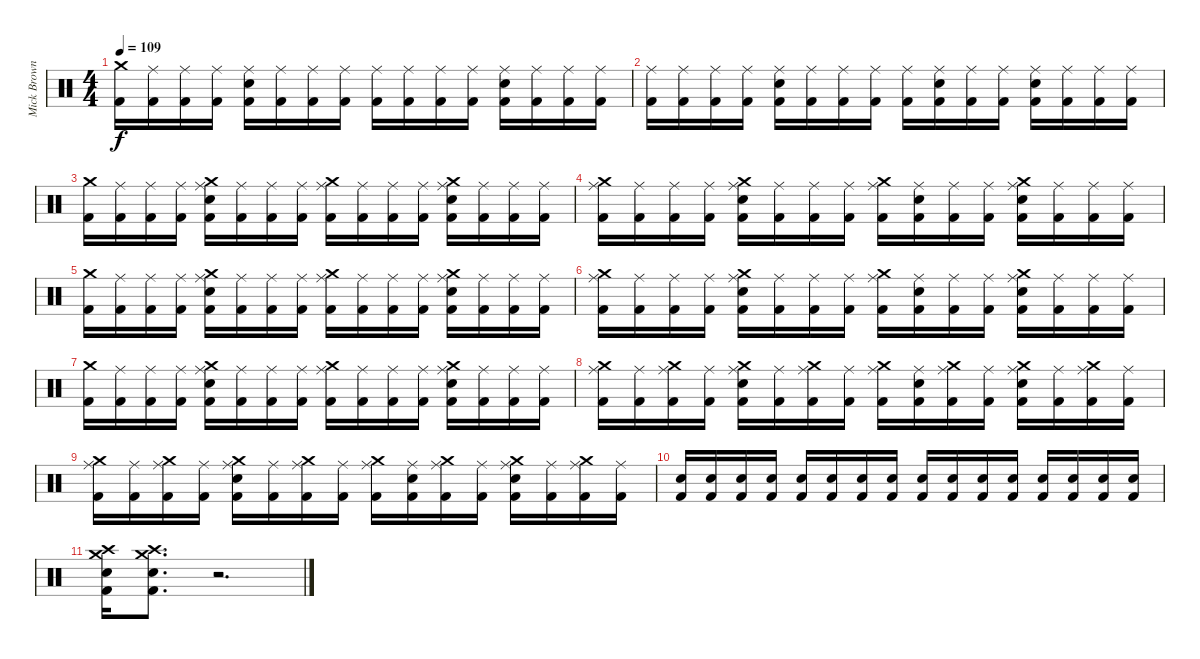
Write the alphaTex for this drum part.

\track ("Mick Brown" "Mick Brown") {instrument percussion}
\staff {score}
\articulation defaults
\ts (4 4)
\tempo 109
\clef neutral
\ks c
("Crash medium (hit)" "Kick (hit) 2").16{dy f} ("Ride (middle)" "Kick (hit) 2").16 ("Ride (middle)" "Kick (hit) 2").16 ("Ride (middle)" "Kick (hit) 2").16 ("Ride (middle)" "Snare (hit) 2" "Kick (hit) 2").16 ("Ride (middle)" "Kick (hit) 2").16 ("Ride (middle)" "Kick (hit) 2").16 ("Ride (middle)" "Kick (hit) 2").16 ("Ride (middle)" "Kick (hit) 2").16 ("Ride (middle)" "Kick (hit) 2").16 ("Ride (middle)" "Kick (hit) 2").16 ("Ride (middle)" "Kick (hit) 2").16 ("Ride (middle)" "Snare (hit) 2" "Kick (hit) 2").16 ("Ride (middle)" "Kick (hit) 2").16 ("Ride (middle)" "Kick (hit) 2").16 ("Ride (middle)" "Kick (hit) 2").16 |
("Ride (middle)" "Kick (hit) 2").16 ("Ride (middle)" "Kick (hit) 2").16 ("Ride (middle)" "Kick (hit) 2").16 ("Ride (middle)" "Kick (hit) 2").16 ("Ride (middle)" "Snare (hit) 2" "Kick (hit) 2").16 ("Ride (middle)" "Kick (hit) 2").16 ("Ride (middle)" "Kick (hit) 2").16 ("Ride (middle)" "Kick (hit) 2").16 ("Ride (middle)" "Kick (hit) 2").16 ("Ride (middle)" "Snare (hit) 2" "Kick (hit) 2").16 ("Ride (middle)" "Kick (hit) 2").16 ("Ride (middle)" "Kick (hit) 2").16 ("Ride (middle)" "Snare (hit) 2" "Kick (hit) 2").16 ("Ride (middle)" "Kick (hit) 2").16 ("Ride (middle)" "Kick (hit) 2").16 ("Ride (middle)" "Kick (hit) 2").16 |
("Crash medium (hit)" "Kick (hit) 2").16 ("Ride (middle)" "Kick (hit) 2").16 ("Ride (middle)" "Kick (hit) 2").16 ("Ride (middle)" "Kick (hit) 2").16 ("Crash medium (hit)" "Ride (middle)" "Snare (hit) 2" "Kick (hit) 2").16 ("Ride (middle)" "Kick (hit) 2").16 ("Ride (middle)" "Kick (hit) 2").16 ("Ride (middle)" "Kick (hit) 2").16 ("Crash medium (hit)" "Ride (middle)" "Kick (hit) 2").16 ("Ride (middle)" "Kick (hit) 2").16 ("Ride (middle)" "Kick (hit) 2").16 ("Ride (middle)" "Kick (hit) 2").16 ("Crash medium (hit)" "Ride (middle)" "Snare (hit) 2" "Kick (hit) 2").16 ("Ride (middle)" "Kick (hit) 2").16 ("Ride (middle)" "Kick (hit) 2").16 ("Ride (middle)" "Kick (hit) 2").16 |
("Crash medium (hit)" "Ride (middle)" "Kick (hit) 2").16 ("Ride (middle)" "Kick (hit) 2").16 ("Ride (middle)" "Kick (hit) 2").16 ("Ride (middle)" "Kick (hit) 2").16 ("Crash medium (hit)" "Ride (middle)" "Snare (hit) 2" "Kick (hit) 2").16 ("Ride (middle)" "Kick (hit) 2").16 ("Ride (middle)" "Kick (hit) 2").16 ("Ride (middle)" "Kick (hit) 2").16 ("Crash medium (hit)" "Ride (middle)" "Kick (hit) 2").16 ("Ride (middle)" "Snare (hit) 2" "Kick (hit) 2").16 ("Ride (middle)" "Kick (hit) 2").16 ("Ride (middle)" "Kick (hit) 2").16 ("Crash medium (hit)" "Ride (middle)" "Snare (hit) 2" "Kick (hit) 2").16 ("Ride (middle)" "Kick (hit) 2").16 ("Ride (middle)" "Kick (hit) 2").16 ("Ride (middle)" "Kick (hit) 2").16 |
("Crash medium (hit)" "Kick (hit) 2").16 ("Ride (middle)" "Kick (hit) 2").16 ("Ride (middle)" "Kick (hit) 2").16 ("Ride (middle)" "Kick (hit) 2").16 ("Crash medium (hit)" "Ride (middle)" "Snare (hit) 2" "Kick (hit) 2").16 ("Ride (middle)" "Kick (hit) 2").16 ("Ride (middle)" "Kick (hit) 2").16 ("Ride (middle)" "Kick (hit) 2").16 ("Crash medium (hit)" "Ride (middle)" "Kick (hit) 2").16 ("Ride (middle)" "Kick (hit) 2").16 ("Ride (middle)" "Kick (hit) 2").16 ("Ride (middle)" "Kick (hit) 2").16 ("Crash medium (hit)" "Ride (middle)" "Snare (hit) 2" "Kick (hit) 2").16 ("Ride (middle)" "Kick (hit) 2").16 ("Ride (middle)" "Kick (hit) 2").16 ("Ride (middle)" "Kick (hit) 2").16 |
("Crash medium (hit)" "Ride (middle)" "Kick (hit) 2").16 ("Ride (middle)" "Kick (hit) 2").16 ("Ride (middle)" "Kick (hit) 2").16 ("Ride (middle)" "Kick (hit) 2").16 ("Crash medium (hit)" "Ride (middle)" "Snare (hit) 2" "Kick (hit) 2").16 ("Ride (middle)" "Kick (hit) 2").16 ("Ride (middle)" "Kick (hit) 2").16 ("Ride (middle)" "Kick (hit) 2").16 ("Crash medium (hit)" "Ride (middle)" "Kick (hit) 2").16 ("Ride (middle)" "Snare (hit) 2" "Kick (hit) 2").16 ("Ride (middle)" "Kick (hit) 2").16 ("Ride (middle)" "Kick (hit) 2").16 ("Crash medium (hit)" "Ride (middle)" "Snare (hit) 2" "Kick (hit) 2").16 ("Ride (middle)" "Kick (hit) 2").16 ("Ride (middle)" "Kick (hit) 2").16 ("Ride (middle)" "Kick (hit) 2").16 |
("Crash medium (hit)" "Kick (hit) 2").16 ("Ride (middle)" "Kick (hit) 2").16 ("Ride (middle)" "Kick (hit) 2").16 ("Ride (middle)" "Kick (hit) 2").16 ("Crash medium (hit)" "Ride (middle)" "Snare (hit) 2" "Kick (hit) 2").16 ("Ride (middle)" "Kick (hit) 2").16 ("Ride (middle)" "Kick (hit) 2").16 ("Ride (middle)" "Kick (hit) 2").16 ("Crash medium (hit)" "Ride (middle)" "Kick (hit) 2").16 ("Ride (middle)" "Kick (hit) 2").16 ("Ride (middle)" "Kick (hit) 2").16 ("Ride (middle)" "Kick (hit) 2").16 ("Crash medium (hit)" "Ride (middle)" "Snare (hit) 2" "Kick (hit) 2").16 ("Ride (middle)" "Kick (hit) 2").16 ("Ride (middle)" "Kick (hit) 2").16 ("Ride (middle)" "Kick (hit) 2").16 |
("Crash medium (hit)" "Ride (middle)" "Kick (hit) 2").16 ("Ride (middle)" "Kick (hit) 2").16 ("Crash medium (hit)" "Ride (middle)" "Kick (hit) 2").16 ("Ride (middle)" "Kick (hit) 2").16 ("Crash medium (hit)" "Ride (middle)" "Snare (hit) 2" "Kick (hit) 2").16 ("Ride (middle)" "Kick (hit) 2").16 ("Crash medium (hit)" "Ride (middle)" "Kick (hit) 2").16 ("Ride (middle)" "Kick (hit) 2").16 ("Crash medium (hit)" "Ride (middle)" "Kick (hit) 2").16 ("Ride (middle)" "Snare (hit) 2" "Kick (hit) 2").16 ("Crash medium (hit)" "Ride (middle)" "Kick (hit) 2").16 ("Ride (middle)" "Kick (hit) 2").16 ("Crash medium (hit)" "Ride (middle)" "Snare (hit) 2" "Kick (hit) 2").16 ("Ride (middle)" "Kick (hit) 2").16 ("Crash medium (hit)" "Ride (middle)" "Kick (hit) 2").16 ("Ride (middle)" "Kick (hit) 2").16 |
("Crash medium (hit)" "Ride (middle)" "Kick (hit) 2").16 ("Ride (middle)" "Kick (hit) 2").16 ("Crash medium (hit)" "Ride (middle)" "Kick (hit) 2").16 ("Ride (middle)" "Kick (hit) 2").16 ("Crash medium (hit)" "Ride (middle)" "Snare (hit) 2" "Kick (hit) 2").16 ("Ride (middle)" "Kick (hit) 2").16 ("Crash medium (hit)" "Ride (middle)" "Kick (hit) 2").16 ("Ride (middle)" "Kick (hit) 2").16 ("Crash medium (hit)" "Ride (middle)" "Kick (hit) 2").16 ("Ride (middle)" "Snare (hit) 2" "Kick (hit) 2").16 ("Crash medium (hit)" "Ride (middle)" "Kick (hit) 2").16 ("Ride (middle)" "Kick (hit) 2").16 ("Crash medium (hit)" "Ride (middle)" "Snare (hit) 2" "Kick (hit) 2").16 ("Ride (middle)" "Kick (hit) 2").16 ("Crash medium (hit)" "Ride (middle)" "Kick (hit) 2").16 ("Ride (middle)" "Kick (hit) 2").16 |
("Snare (hit) 2" "Kick (hit) 2").16 ("Snare (hit) 2" "Kick (hit) 2").16 ("Snare (hit) 2" "Kick (hit) 2").16 ("Snare (hit) 2" "Kick (hit) 2").16 ("Snare (hit) 2" "Kick (hit) 2").16 ("Snare (hit) 2" "Kick (hit) 2").16 ("Snare (hit) 2" "Kick (hit) 2").16 ("Snare (hit) 2" "Kick (hit) 2").16 ("Snare (hit) 2" "Kick (hit) 2").16 ("Snare (hit) 2" "Kick (hit) 2").16 ("Snare (hit) 2" "Kick (hit) 2").16 ("Snare (hit) 2" "Kick (hit) 2").16 ("Snare (hit) 2" "Kick (hit) 2").16 ("Snare (hit) 2" "Kick (hit) 2").16 ("Snare (hit) 2" "Kick (hit) 2").16 ("Snare (hit) 2" "Kick (hit) 2").16 |
("Crash medium (hit)" "Snare (hit) 2" "Crash high (hit)" "Kick (hit) 2").16 ("Crash medium (hit)" "Snare (hit) 2" "Crash high (hit)" "Kick (hit) 2").8{d} r.2{d}
